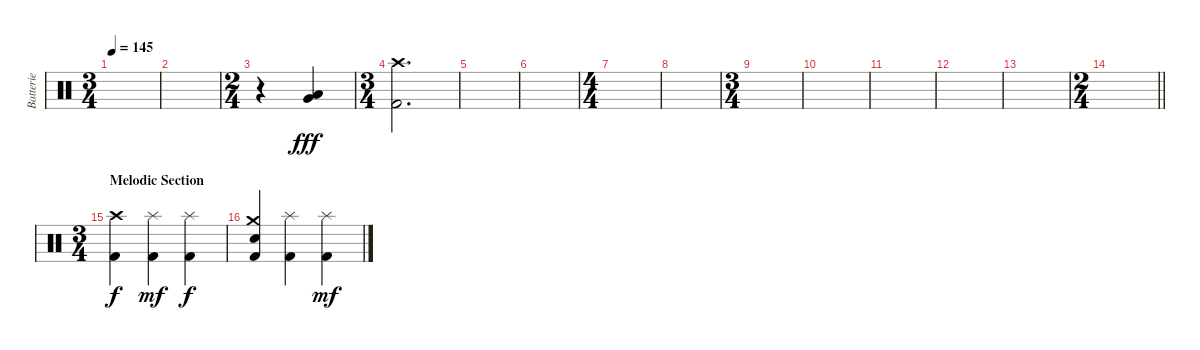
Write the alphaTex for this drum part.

\track ("Batterie" "Batterie") {instrument percussion}
\staff {score}
\articulation defaults
\ts (3 4)
\tempo 145
\clef neutral
\ks c
|
|
\ts (2 4)
r.4 ("Low Floor Tom (hit)" "Very Low Tom (hit)").4{dy fff} |
\ts (3 4)
("Crash high (hit)" "Kick (hit) 2").2{d} |
|
|
\ts (4 4)
|
|
\ts (3 4)
|
|
|
|
|
\ts (2 4)
\barLineRight lightlight
|
\ts (3 4)
\section ("" "Melodic Section")
("Crash high (hit)" "Kick (hit) 2").4{dy f} ("Splash (hit)" "Kick (hit) 2").4{dy mf} ("Splash (hit)" "Kick (hit) 2").4{dy f} |
("Crash medium (hit)" "Electric Snare (hit)" "Kick (hit) 2").4 ("Splash (hit)" "Kick (hit) 2").4 ("Splash (hit)" "Kick (hit) 2").4{dy mf}
